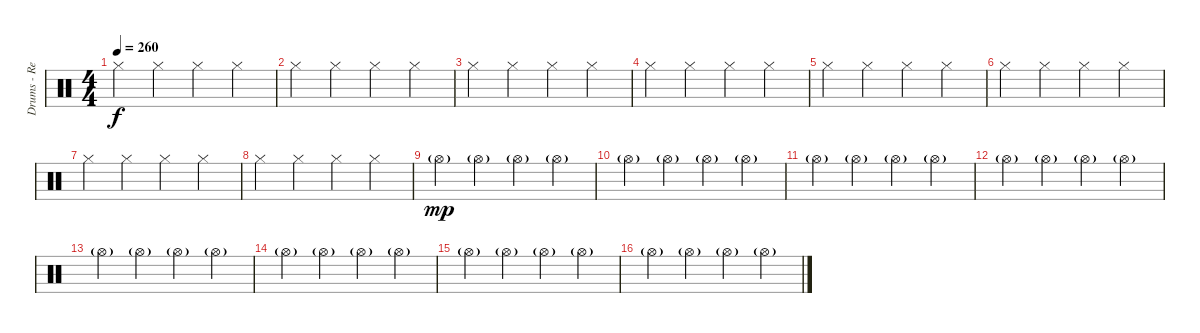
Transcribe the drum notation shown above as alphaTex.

\track ("Drums - Re'a Mochiach" "Drums - Re") {instrument percussion}
\staff {score}
\articulation defaults
\ts (4 4)
\tempo 260
\clef neutral
\ks c "Hi-Hat (closed)".4{dy f} "Hi-Hat (closed)".4 "Hi-Hat (closed)".4 "Hi-Hat (closed)".4
|
"Hi-Hat (closed)".4 "Hi-Hat (closed)".4 "Hi-Hat (closed)".4 "Hi-Hat (closed)".4 |
"Hi-Hat (closed)".4 "Hi-Hat (closed)".4 "Hi-Hat (closed)".4 "Hi-Hat (closed)".4 |
"Hi-Hat (closed)".4 "Hi-Hat (closed)".4 "Hi-Hat (closed)".4 "Hi-Hat (closed)".4 |
"Hi-Hat (closed)".4 "Hi-Hat (closed)".4 "Hi-Hat (closed)".4 "Hi-Hat (closed)".4 |
"Hi-Hat (closed)".4 "Hi-Hat (closed)".4 "Hi-Hat (closed)".4 "Hi-Hat (closed)".4 |
"Hi-Hat (closed)".4 "Hi-Hat (closed)".4 "Hi-Hat (closed)".4 "Hi-Hat (closed)".4 |
"Hi-Hat (closed)".4 "Hi-Hat (closed)".4 "Hi-Hat (closed)".4 "Hi-Hat (closed)".4 |
"Hi-Hat (open)"{g}.4{dy mp} "Hi-Hat (open)"{g}.4 "Hi-Hat (open)"{g}.4 "Hi-Hat (open)"{g}.4 |
"Hi-Hat (open)"{g}.4 "Hi-Hat (open)"{g}.4 "Hi-Hat (open)"{g}.4 "Hi-Hat (open)"{g}.4 |
"Hi-Hat (open)"{g}.4 "Hi-Hat (open)"{g}.4 "Hi-Hat (open)"{g}.4 "Hi-Hat (open)"{g}.4 |
"Hi-Hat (open)"{g}.4 "Hi-Hat (open)"{g}.4 "Hi-Hat (open)"{g}.4 "Hi-Hat (open)"{g}.4 |
"Hi-Hat (open)"{g}.4 "Hi-Hat (open)"{g}.4 "Hi-Hat (open)"{g}.4 "Hi-Hat (open)"{g}.4 |
"Hi-Hat (open)"{g}.4 "Hi-Hat (open)"{g}.4 "Hi-Hat (open)"{g}.4 "Hi-Hat (open)"{g}.4 |
"Hi-Hat (open)"{g}.4 "Hi-Hat (open)"{g}.4 "Hi-Hat (open)"{g}.4 "Hi-Hat (open)"{g}.4 |
"Hi-Hat (open)"{g}.4 "Hi-Hat (open)"{g}.4 "Hi-Hat (open)"{g}.4 "Hi-Hat (open)"{g}.4
